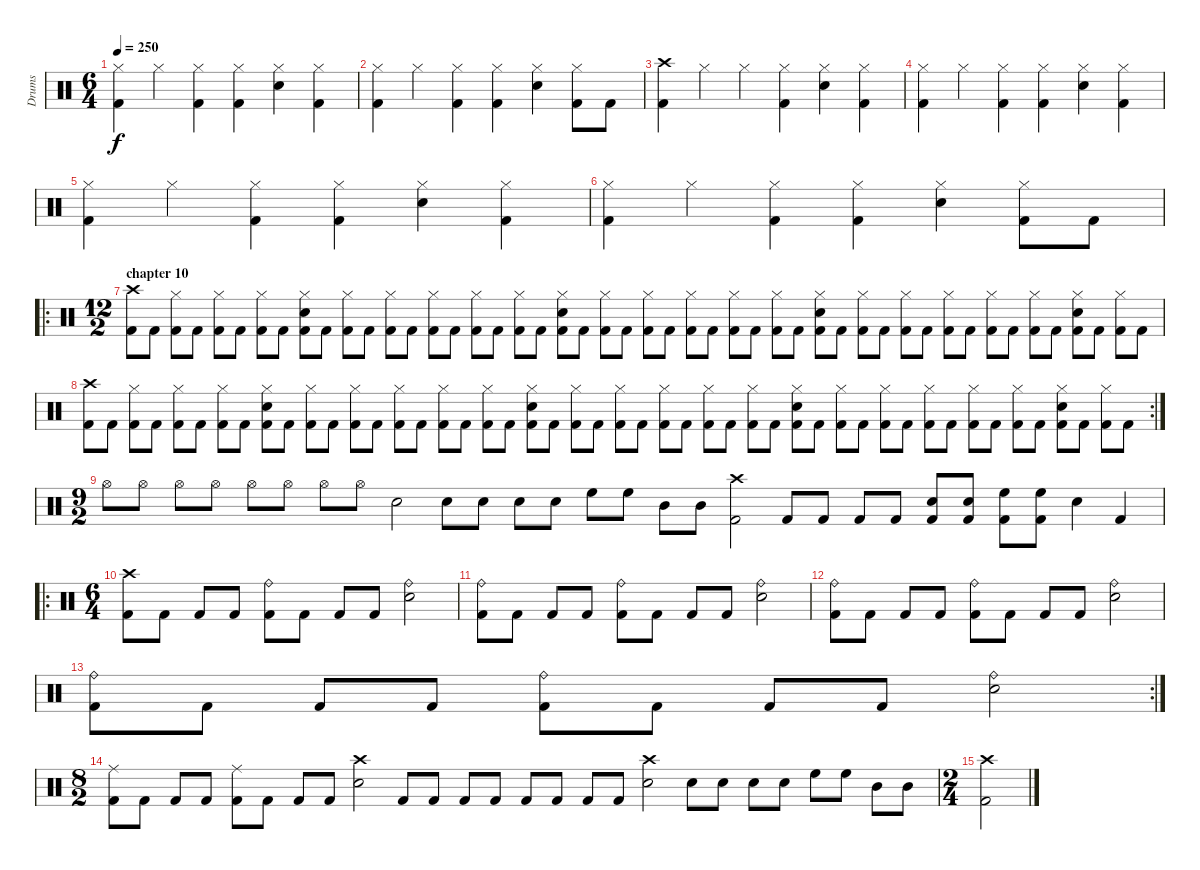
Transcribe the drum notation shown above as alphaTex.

\track ("Drums" "Drums") {instrument percussion}
\staff {score}
\articulation defaults
\ts (6 4)
\tempo 250
\clef neutral
\ks c
("Hi-Hat (closed)" "Kick (hit) 2").4{dy f} "Hi-Hat (closed)".4 ("Hi-Hat (closed)" "Kick (hit) 2").4 ("Hi-Hat (closed)" "Kick (hit) 2").4 ("Hi-Hat (closed)" "Snare (hit) 2").4 ("Hi-Hat (closed)" "Kick (hit) 2").4 |
("Hi-Hat (closed)" "Kick (hit) 2").4 "Hi-Hat (closed)".4 ("Hi-Hat (closed)" "Kick (hit) 2").4 ("Hi-Hat (closed)" "Kick (hit) 2").4 ("Hi-Hat (closed)" "Snare (hit) 2").4 ("Hi-Hat (closed)" "Kick (hit) 2").8 "Kick (hit) 2".8 |
("Crash high (hit)" "Kick (hit) 2").4 "Hi-Hat (closed)".4 "Hi-Hat (closed)".4 ("Hi-Hat (closed)" "Kick (hit) 2").4 ("Hi-Hat (closed)" "Snare (hit) 2").4 ("Hi-Hat (closed)" "Kick (hit) 2").4 |
("Hi-Hat (closed)" "Kick (hit) 2").4 "Hi-Hat (closed)".4 ("Hi-Hat (closed)" "Kick (hit) 2").4 ("Hi-Hat (closed)" "Kick (hit) 2").4 ("Hi-Hat (closed)" "Snare (hit) 2").4 ("Hi-Hat (closed)" "Kick (hit) 2").4 |
("Hi-Hat (closed)" "Kick (hit) 2").4 "Hi-Hat (closed)".4 ("Hi-Hat (closed)" "Kick (hit) 2").4 ("Hi-Hat (closed)" "Kick (hit) 2").4 ("Hi-Hat (closed)" "Snare (hit) 2").4 ("Hi-Hat (closed)" "Kick (hit) 2").4 |
("Hi-Hat (closed)" "Kick (hit) 2").4 "Hi-Hat (closed)".4 ("Hi-Hat (closed)" "Kick (hit) 2").4 ("Hi-Hat (closed)" "Kick (hit) 2").4 ("Hi-Hat (closed)" "Snare (hit) 2").4 ("Hi-Hat (closed)" "Kick (hit) 2").8 "Kick (hit) 2".8 |
\ro
\ts (12 2)
\section ("" "chapter 10")
("Crash high (hit)" "Kick (hit) 2").8 "Kick (hit) 2".8 ("Hi-Hat (closed)" "Kick (hit) 2").8 "Kick (hit) 2".8 ("Hi-Hat (closed)" "Kick (hit) 2").8 "Kick (hit) 2".8 ("Hi-Hat (closed)" "Kick (hit) 2").8 "Kick (hit) 2".8 ("Hi-Hat (closed)" "Snare (hit) 2" "Kick (hit) 2").8 "Kick (hit) 2".8 ("Hi-Hat (closed)" "Kick (hit) 2").8 "Kick (hit) 2".8 ("Hi-Hat (closed)" "Kick (hit) 2").8 "Kick (hit) 2".8 ("Hi-Hat (closed)" "Kick (hit) 2").8 "Kick (hit) 2".8 ("Hi-Hat (closed)" "Kick (hit) 2").8 "Kick (hit) 2".8 ("Hi-Hat (closed)" "Kick (hit) 2").8 "Kick (hit) 2".8 ("Hi-Hat (closed)" "Snare (hit) 2" "Kick (hit) 2").8 "Kick (hit) 2".8 ("Hi-Hat (closed)" "Kick (hit) 2").8 "Kick (hit) 2".8 ("Hi-Hat (closed)" "Kick (hit) 2").8 "Kick (hit) 2".8 ("Hi-Hat (closed)" "Kick (hit) 2").8 "Kick (hit) 2".8 ("Hi-Hat (closed)" "Kick (hit) 2").8 "Kick (hit) 2".8 ("Hi-Hat (closed)" "Kick (hit) 2").8 "Kick (hit) 2".8 ("Hi-Hat (closed)" "Snare (hit) 2" "Kick (hit) 2").8 "Kick (hit) 2".8 ("Hi-Hat (closed)" "Kick (hit) 2").8 "Kick (hit) 2".8 ("Hi-Hat (closed)" "Kick (hit) 2").8 "Kick (hit) 2".8 ("Hi-Hat (closed)" "Kick (hit) 2").8 "Kick (hit) 2".8 ("Hi-Hat (closed)" "Kick (hit) 2").8 "Kick (hit) 2".8 ("Hi-Hat (closed)" "Kick (hit) 2").8 "Kick (hit) 2".8 ("Hi-Hat (closed)" "Snare (hit) 2" "Kick (hit) 2").8 "Kick (hit) 2".8 ("Hi-Hat (closed)" "Kick (hit) 2").8 "Kick (hit) 2".8 |
\rc 2
("Crash high (hit)" "Kick (hit) 2").8 "Kick (hit) 2".8 ("Hi-Hat (closed)" "Kick (hit) 2").8 "Kick (hit) 2".8 ("Hi-Hat (closed)" "Kick (hit) 2").8 "Kick (hit) 2".8 ("Hi-Hat (closed)" "Kick (hit) 2").8 "Kick (hit) 2".8 ("Hi-Hat (closed)" "Snare (hit) 2" "Kick (hit) 2").8 "Kick (hit) 2".8 ("Hi-Hat (closed)" "Kick (hit) 2").8 "Kick (hit) 2".8 ("Hi-Hat (closed)" "Kick (hit) 2").8 "Kick (hit) 2".8 ("Hi-Hat (closed)" "Kick (hit) 2").8 "Kick (hit) 2".8 ("Hi-Hat (closed)" "Kick (hit) 2").8 "Kick (hit) 2".8 ("Hi-Hat (closed)" "Kick (hit) 2").8 "Kick (hit) 2".8 ("Hi-Hat (closed)" "Snare (hit) 2" "Kick (hit) 2").8 "Kick (hit) 2".8 ("Hi-Hat (closed)" "Kick (hit) 2").8 "Kick (hit) 2".8 ("Hi-Hat (closed)" "Kick (hit) 2").8 "Kick (hit) 2".8 ("Hi-Hat (closed)" "Kick (hit) 2").8 "Kick (hit) 2".8 ("Hi-Hat (closed)" "Kick (hit) 2").8 "Kick (hit) 2".8 ("Hi-Hat (closed)" "Kick (hit) 2").8 "Kick (hit) 2".8 ("Hi-Hat (closed)" "Snare (hit) 2" "Kick (hit) 2").8 "Kick (hit) 2".8 ("Hi-Hat (closed)" "Kick (hit) 2").8 "Kick (hit) 2".8 ("Hi-Hat (closed)" "Kick (hit) 2").8 "Kick (hit) 2".8 ("Hi-Hat (closed)" "Kick (hit) 2").8 "Kick (hit) 2".8 ("Hi-Hat (closed)" "Kick (hit) 2").8 "Kick (hit) 2".8 ("Hi-Hat (closed)" "Kick (hit) 2").8 "Kick (hit) 2".8 ("Hi-Hat (closed)" "Snare (hit) 2" "Kick (hit) 2").8 "Kick (hit) 2".8 ("Hi-Hat (closed)" "Kick (hit) 2").8 "Kick (hit) 2".8 |
\ts (9 2)
"Hi-Hat (open)".8 "Hi-Hat (open)".8 "Hi-Hat (open)".8 "Hi-Hat (open)".8 "Hi-Hat (open)".8 "Hi-Hat (open)".8 "Hi-Hat (open)".8 "Hi-Hat (open)".8 "Snare (hit) 2".2 "Snare (hit) 2".8 "Snare (hit) 2".8 "Snare (hit) 2".8 "Snare (hit) 2".8 "High Floor Tom (hit)".8 "High Floor Tom (hit)".8 "Mid Tom (hit)".8 "Mid Tom (hit)".8 ("Crash high (hit)" "Kick (hit) 2").2 "Kick (hit) 2".8 "Kick (hit) 2".8 "Kick (hit) 2".8 "Kick (hit) 2".8 ("Snare (hit) 2" "Kick (hit) 2").8 ("Snare (hit) 2" "Kick (hit) 2").8 ("High Floor Tom (hit)" "Kick (hit) 2").8 ("High Floor Tom (hit)" "Kick (hit) 2").8 "Snare (hit) 2".4 "Kick (hit) 2".4 |
\ro
\ts (6 4)
("Crash high (hit)" "Kick (hit) 2").8 "Kick (hit) 2".8 "Kick (hit) 2".8 "Kick (hit) 2".8 ("Ride (bell)" "Kick (hit) 2").8 "Kick (hit) 2".8 "Kick (hit) 2".8 "Kick (hit) 2".8 ("Ride (bell)" "Snare (hit) 2").2 |
("Ride (bell)" "Kick (hit) 2").8 "Kick (hit) 2".8 "Kick (hit) 2".8 "Kick (hit) 2".8 ("Ride (bell)" "Kick (hit) 2").8 "Kick (hit) 2".8 "Kick (hit) 2".8 "Kick (hit) 2".8 ("Ride (bell)" "Snare (hit) 2").2 |
("Ride (bell)" "Kick (hit) 2").8 "Kick (hit) 2".8 "Kick (hit) 2".8 "Kick (hit) 2".8 ("Ride (bell)" "Kick (hit) 2").8 "Kick (hit) 2".8 "Kick (hit) 2".8 "Kick (hit) 2".8 ("Ride (bell)" "Snare (hit) 2").2 |
\rc 2
("Ride (bell)" "Kick (hit) 2").8 "Kick (hit) 2".8 "Kick (hit) 2".8 "Kick (hit) 2".8 ("Ride (bell)" "Kick (hit) 2").8 "Kick (hit) 2".8 "Kick (hit) 2".8 "Kick (hit) 2".8 ("Ride (bell)" "Snare (hit) 2").2 |
\ts (8 2)
("Ride (middle)" "Kick (hit) 2").8 "Kick (hit) 2".8 "Kick (hit) 2".8 "Kick (hit) 2".8 ("Ride (middle)" "Kick (hit) 2").8 "Kick (hit) 2".8 "Kick (hit) 2".8 "Kick (hit) 2".8 ("Crash high (hit)" "Snare (hit) 2").2 "Kick (hit) 2".8 "Kick (hit) 2".8 "Kick (hit) 2".8 "Kick (hit) 2".8 "Kick (hit) 2".8 "Kick (hit) 2".8 "Kick (hit) 2".8 "Kick (hit) 2".8 ("Crash high (hit)" "Snare (hit) 2").2 "Snare (hit) 2".8 "Snare (hit) 2".8 "Snare (hit) 2".8 "Snare (hit) 2".8 "High Floor Tom (hit)".8 "High Floor Tom (hit)".8 "Mid Tom (hit)".8 "Mid Tom (hit)".8 |
\ts (2 4)
("Crash high (hit)" "Kick (hit) 2").2
